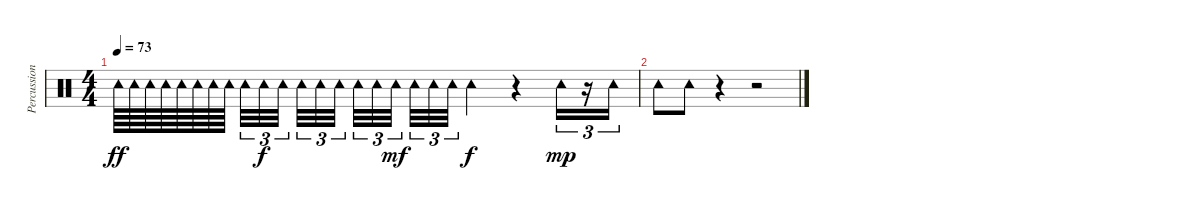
\track ("Percussion" "Percussion") {instrument percussion}
\staff {score}
\articulation defaults
\ts (4 4)
\tempo 73
\clef neutral
\ks c "Tambourine (hit)".64{dy ff} "Tambourine (hit)".64 "Tambourine (hit)".64 "Tambourine (hit)".64 "Tambourine (hit)".64 "Tambourine (hit)".64 "Tambourine (hit)".64 "Tambourine (hit)".64 "Tambourine (hit)".32{tu (3 2)} "Tambourine (hit)".32{tu (3 2) dy f} "Tambourine (hit)".32{tu (3 2)} "Tambourine (hit)".32{tu (3 2)} "Tambourine (hit)".32{tu (3 2)} "Tambourine (hit)".32{tu (3 2)} "Tambourine (hit)".32{tu (3 2)} "Tambourine (hit)".32{tu (3 2)} "Tambourine (hit)".32{tu (3 2) dy mf} "Tambourine (hit)".32{tu (3 2)} "Tambourine (hit)".32{tu (3 2)} "Tambourine (hit)".32{tu (3 2)} "Tambourine (hit)".4{dy f}
r.4 "Tambourine (hit)".16{tu (3 2) dy mp} r.16{tu (3 2)} "Tambourine (hit)".16{tu (3 2)} |
"Tambourine (hit)".8 "Tambourine (hit)".8 r.4 r.2
